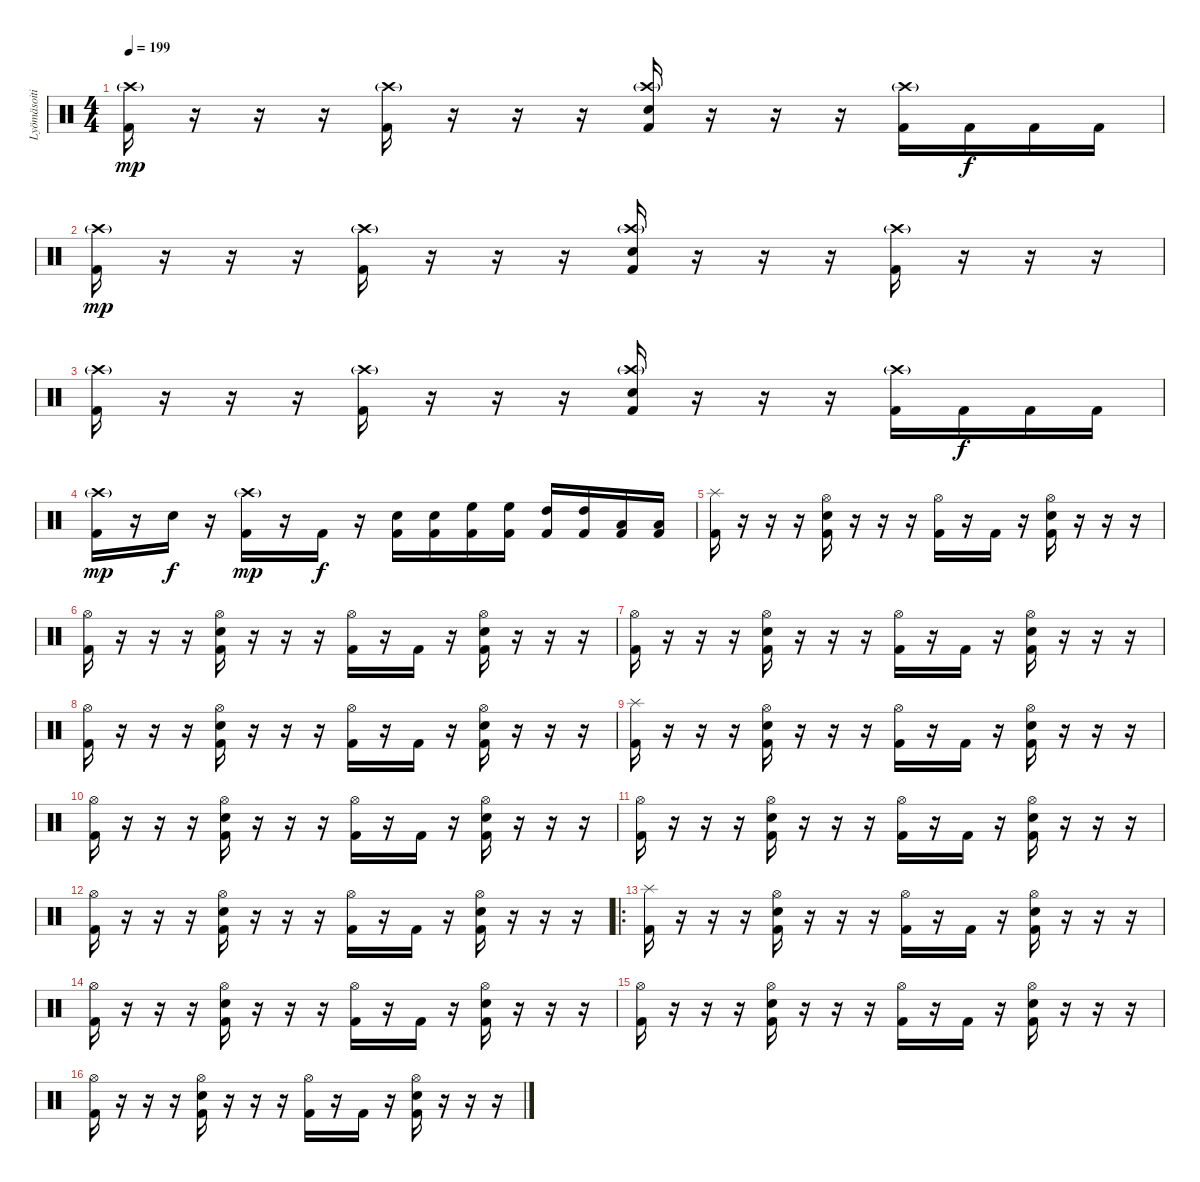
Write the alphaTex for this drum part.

\track ("Lyömäsoitin" "Lyömäsoiti") {instrument percussion}
\staff {score}
\articulation defaults
\ts (4 4)
\tempo 199
\clef neutral
\ks c
("Kick (hit) 2" "Crash high (hit)"{g}).16{dy mp} r.16 r.16 r.16 ("Kick (hit) 2" "Crash high (hit)"{g}).16 r.16 r.16 r.16 ("Kick (hit) 2" "Crash high (hit)"{g} "Snare (hit) 2").16 r.16 r.16 r.16 ("Kick (hit) 2" "Crash high (hit)"{g}).16 "Kick (hit) 2".16{dy f} "Kick (hit) 2".16 "Kick (hit) 2".16 |
("Kick (hit) 2" "Crash high (hit)"{g}).16{dy mp} r.16 r.16 r.16 ("Kick (hit) 2" "Crash high (hit)"{g}).16 r.16 r.16 r.16 ("Kick (hit) 2" "Crash high (hit)"{g} "Snare (hit) 2").16 r.16 r.16 r.16 ("Kick (hit) 2" "Crash high (hit)"{g}).16 r.16 r.16 r.16 |
("Kick (hit) 2" "Crash high (hit)"{g}).16 r.16 r.16 r.16 ("Kick (hit) 2" "Crash high (hit)"{g}).16 r.16 r.16 r.16 ("Kick (hit) 2" "Crash high (hit)"{g} "Snare (hit) 2").16 r.16 r.16 r.16 ("Kick (hit) 2" "Crash high (hit)"{g}).16 "Kick (hit) 2".16{dy f} "Kick (hit) 2".16 "Kick (hit) 2".16 |
("Kick (hit) 2" "Crash high (hit)"{g}).16{dy mp} r.16 "Snare (hit) 2".16{dy f} r.16 ("Kick (hit) 2" "Crash high (hit)"{g}).16{dy mp} r.16 "Kick (hit) 2".16{dy f} r.16 ("Kick (hit) 2" "Snare (hit) 2").16 ("Kick (hit) 2" "Snare (hit) 2").16 ("Kick (hit) 2" "High Floor Tom (hit)").16 ("Kick (hit) 2" "High Floor Tom (hit)").16 ("Kick (hit) 2" "High Tom (hit)").16 ("Kick (hit) 2" "High Tom (hit)").16 ("Kick (hit) 2" "Low Tom (hit)").16 ("Kick (hit) 2" "Low Tom (hit)").16 |
("Kick (hit) 2" "Splash (hit)").16 r.16 r.16 r.16 ("Kick (hit) 2" "Hi-Hat (open)" "Snare (hit) 2").16 r.16 r.16 r.16 ("Kick (hit) 2" "Hi-Hat (open)").16 r.16 "Kick (hit) 2".16 r.16 ("Kick (hit) 2" "Hi-Hat (open)" "Snare (hit) 2").16 r.16 r.16 r.16 |
("Kick (hit) 2" "Hi-Hat (open)").16 r.16 r.16 r.16 ("Kick (hit) 2" "Hi-Hat (open)" "Snare (hit) 2").16 r.16 r.16 r.16 ("Kick (hit) 2" "Hi-Hat (open)").16 r.16 "Kick (hit) 2".16 r.16 ("Kick (hit) 2" "Hi-Hat (open)" "Snare (hit) 2").16 r.16 r.16 r.16 |
("Kick (hit) 2" "Hi-Hat (open)").16 r.16 r.16 r.16 ("Kick (hit) 2" "Hi-Hat (open)" "Snare (hit) 2").16 r.16 r.16 r.16 ("Kick (hit) 2" "Hi-Hat (open)").16 r.16 "Kick (hit) 2".16 r.16 ("Kick (hit) 2" "Hi-Hat (open)" "Snare (hit) 2").16 r.16 r.16 r.16 |
("Kick (hit) 2" "Hi-Hat (open)").16 r.16 r.16 r.16 ("Kick (hit) 2" "Hi-Hat (open)" "Snare (hit) 2").16 r.16 r.16 r.16 ("Kick (hit) 2" "Hi-Hat (open)").16 r.16 "Kick (hit) 2".16 r.16 ("Kick (hit) 2" "Hi-Hat (open)" "Snare (hit) 2").16 r.16 r.16 r.16 |
("Kick (hit) 2" "Splash (hit)").16 r.16 r.16 r.16 ("Kick (hit) 2" "Hi-Hat (open)" "Snare (hit) 2").16 r.16 r.16 r.16 ("Kick (hit) 2" "Hi-Hat (open)").16 r.16 "Kick (hit) 2".16 r.16 ("Kick (hit) 2" "Hi-Hat (open)" "Snare (hit) 2").16 r.16 r.16 r.16 |
("Kick (hit) 2" "Hi-Hat (open)").16 r.16 r.16 r.16 ("Kick (hit) 2" "Hi-Hat (open)" "Snare (hit) 2").16 r.16 r.16 r.16 ("Kick (hit) 2" "Hi-Hat (open)").16 r.16 "Kick (hit) 2".16 r.16 ("Kick (hit) 2" "Hi-Hat (open)" "Snare (hit) 2").16 r.16 r.16 r.16 |
("Kick (hit) 2" "Hi-Hat (open)").16 r.16 r.16 r.16 ("Kick (hit) 2" "Hi-Hat (open)" "Snare (hit) 2").16 r.16 r.16 r.16 ("Kick (hit) 2" "Hi-Hat (open)").16 r.16 "Kick (hit) 2".16 r.16 ("Kick (hit) 2" "Hi-Hat (open)" "Snare (hit) 2").16 r.16 r.16 r.16 |
("Kick (hit) 2" "Hi-Hat (open)").16 r.16 r.16 r.16 ("Kick (hit) 2" "Hi-Hat (open)" "Snare (hit) 2").16 r.16 r.16 r.16 ("Kick (hit) 2" "Hi-Hat (open)").16 r.16 "Kick (hit) 2".16 r.16 ("Kick (hit) 2" "Hi-Hat (open)" "Snare (hit) 2").16 r.16 r.16 r.16 |
\ro
("Kick (hit) 2" "Splash (hit)").16 r.16 r.16 r.16 ("Kick (hit) 2" "Hi-Hat (open)" "Snare (hit) 2").16 r.16 r.16 r.16 ("Kick (hit) 2" "Hi-Hat (open)").16 r.16 "Kick (hit) 2".16 r.16 ("Kick (hit) 2" "Hi-Hat (open)" "Snare (hit) 2").16 r.16 r.16 r.16 |
("Kick (hit) 2" "Hi-Hat (open)").16 r.16 r.16 r.16 ("Kick (hit) 2" "Hi-Hat (open)" "Snare (hit) 2").16 r.16 r.16 r.16 ("Kick (hit) 2" "Hi-Hat (open)").16 r.16 "Kick (hit) 2".16 r.16 ("Kick (hit) 2" "Hi-Hat (open)" "Snare (hit) 2").16 r.16 r.16 r.16 |
("Kick (hit) 2" "Hi-Hat (open)").16 r.16 r.16 r.16 ("Kick (hit) 2" "Hi-Hat (open)" "Snare (hit) 2").16 r.16 r.16 r.16 ("Kick (hit) 2" "Hi-Hat (open)").16 r.16 "Kick (hit) 2".16 r.16 ("Kick (hit) 2" "Hi-Hat (open)" "Snare (hit) 2").16 r.16 r.16 r.16 |
("Kick (hit) 2" "Hi-Hat (open)").16 r.16 r.16 r.16 ("Kick (hit) 2" "Hi-Hat (open)" "Snare (hit) 2").16 r.16 r.16 r.16 ("Kick (hit) 2" "Hi-Hat (open)").16 r.16 "Kick (hit) 2".16 r.16 ("Kick (hit) 2" "Hi-Hat (open)" "Snare (hit) 2").16 r.16 r.16 r.16
